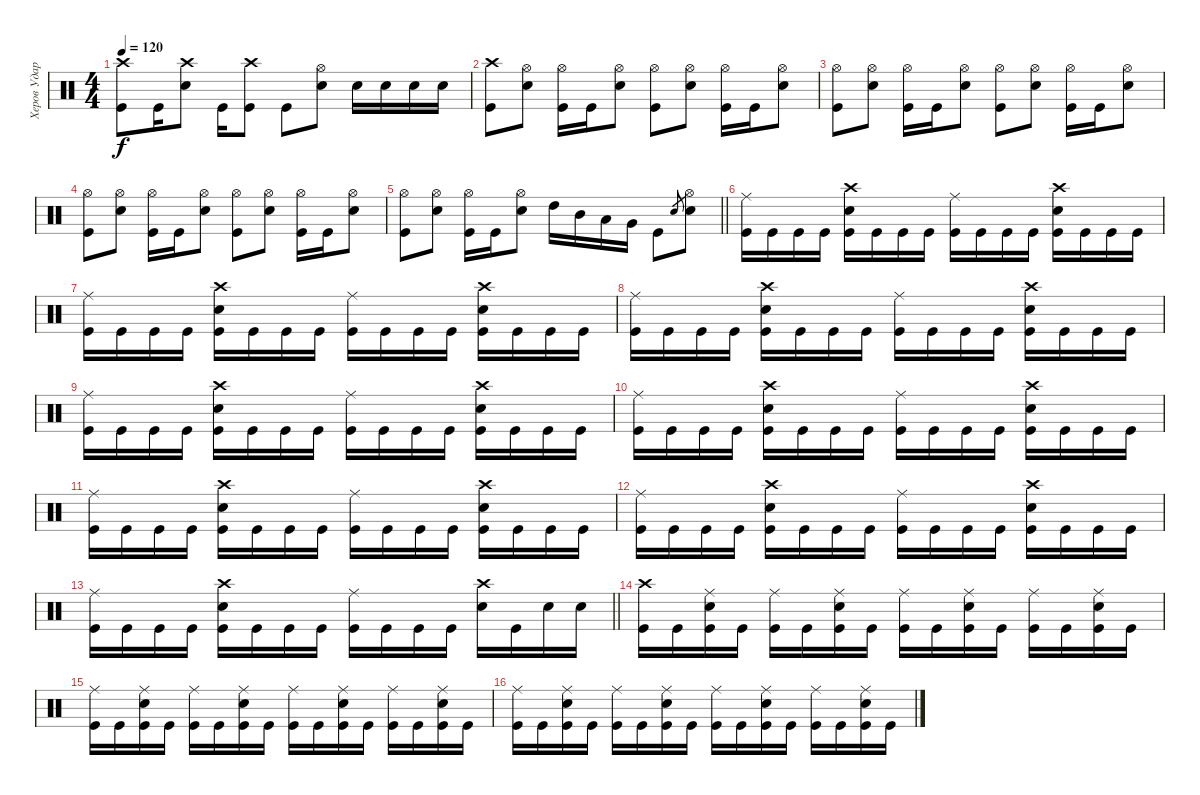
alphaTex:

\track ("Херов Ударник" "Херов Удар") {instrument percussion}
\staff {score}
\articulation defaults
\ts (4 4)
\tempo 120
\clef neutral
\ks c
("Crash high (hit)" "Kick (hit)").8{dy f} "Kick (hit)".16 ("Crash high (hit)" "Electric Snare (hit)").8 "Kick (hit)".16 ("Crash high (hit)" "Kick (hit)").8 "Kick (hit)".8 ("Hi-Hat (open)" "Electric Snare (hit)").8 "Electric Snare (hit)".16 "Electric Snare (hit)".16 "Electric Snare (hit)".16 "Electric Snare (hit)".16 |
("Crash high (hit)" "Kick (hit)").8 ("Hi-Hat (open)" "Electric Snare (hit)").8 ("Hi-Hat (open)" "Kick (hit)").16 "Kick (hit)".16 ("Hi-Hat (open)" "Electric Snare (hit)").8 ("Hi-Hat (open)" "Kick (hit)").8 ("Hi-Hat (open)" "Electric Snare (hit)").8 ("Hi-Hat (open)" "Kick (hit)").16 "Kick (hit)".16 ("Hi-Hat (open)" "Electric Snare (hit)").8 |
("Hi-Hat (open)" "Kick (hit)").8 ("Hi-Hat (open)" "Electric Snare (hit)").8 ("Hi-Hat (open)" "Kick (hit)").16 "Kick (hit)".16 ("Hi-Hat (open)" "Electric Snare (hit)").8 ("Hi-Hat (open)" "Kick (hit)").8 ("Hi-Hat (open)" "Electric Snare (hit)").8 ("Hi-Hat (open)" "Kick (hit)").16 "Kick (hit)".16 ("Hi-Hat (open)" "Electric Snare (hit)").8 |
("Hi-Hat (open)" "Kick (hit)").8 ("Hi-Hat (open)" "Electric Snare (hit)").8 ("Hi-Hat (open)" "Kick (hit)").16 "Kick (hit)".16 ("Hi-Hat (open)" "Electric Snare (hit)").8 ("Hi-Hat (open)" "Kick (hit)").8 ("Hi-Hat (open)" "Electric Snare (hit)").8 ("Hi-Hat (open)" "Kick (hit)").16 "Kick (hit)".16 ("Hi-Hat (open)" "Electric Snare (hit)").8 |
\barLineRight lightlight
("Hi-Hat (open)" "Kick (hit)").8 ("Hi-Hat (open)" "Electric Snare (hit)").8 ("Hi-Hat (open)" "Kick (hit)").16 "Kick (hit)".16 ("Hi-Hat (open)" "Electric Snare (hit)").8 "High Tom (hit)".16 "Mid Tom (hit)".16 "Low Tom (hit)".16 "Very Low Tom (hit)".16 "Kick (hit)".8 "Electric Snare (hit)".8{gr} ("Hi-Hat (open)" "Electric Snare (hit)").8 |
\section ("" "")
("Ride (middle)" "Kick (hit)").16 "Kick (hit)".16 "Kick (hit)".16 "Kick (hit)".16 ("Crash high (hit)" "Electric Snare (hit)" "Kick (hit)").16 "Kick (hit)".16 "Kick (hit)".16 "Kick (hit)".16 ("Ride (middle)" "Kick (hit)").16 "Kick (hit)".16 "Kick (hit)".16 "Kick (hit)".16 ("Crash high (hit)" "Electric Snare (hit)" "Kick (hit)").16 "Kick (hit)".16 "Kick (hit)".16 "Kick (hit)".16 |
("Ride (middle)" "Kick (hit)").16 "Kick (hit)".16 "Kick (hit)".16 "Kick (hit)".16 ("Crash high (hit)" "Electric Snare (hit)" "Kick (hit)").16 "Kick (hit)".16 "Kick (hit)".16 "Kick (hit)".16 ("Ride (middle)" "Kick (hit)").16 "Kick (hit)".16 "Kick (hit)".16 "Kick (hit)".16 ("Crash high (hit)" "Electric Snare (hit)" "Kick (hit)").16 "Kick (hit)".16 "Kick (hit)".16 "Kick (hit)".16 |
("Ride (middle)" "Kick (hit)").16 "Kick (hit)".16 "Kick (hit)".16 "Kick (hit)".16 ("Crash high (hit)" "Electric Snare (hit)" "Kick (hit)").16 "Kick (hit)".16 "Kick (hit)".16 "Kick (hit)".16 ("Ride (middle)" "Kick (hit)").16 "Kick (hit)".16 "Kick (hit)".16 "Kick (hit)".16 ("Crash high (hit)" "Electric Snare (hit)" "Kick (hit)").16 "Kick (hit)".16 "Kick (hit)".16 "Kick (hit)".16 |
("Ride (middle)" "Kick (hit)").16 "Kick (hit)".16 "Kick (hit)".16 "Kick (hit)".16 ("Crash high (hit)" "Electric Snare (hit)" "Kick (hit)").16 "Kick (hit)".16 "Kick (hit)".16 "Kick (hit)".16 ("Ride (middle)" "Kick (hit)").16 "Kick (hit)".16 "Kick (hit)".16 "Kick (hit)".16 ("Crash high (hit)" "Electric Snare (hit)" "Kick (hit)").16 "Kick (hit)".16 "Kick (hit)".16 "Kick (hit)".16 |
("Ride (middle)" "Kick (hit)").16 "Kick (hit)".16 "Kick (hit)".16 "Kick (hit)".16 ("Crash high (hit)" "Electric Snare (hit)" "Kick (hit)").16 "Kick (hit)".16 "Kick (hit)".16 "Kick (hit)".16 ("Ride (middle)" "Kick (hit)").16 "Kick (hit)".16 "Kick (hit)".16 "Kick (hit)".16 ("Crash high (hit)" "Electric Snare (hit)" "Kick (hit)").16 "Kick (hit)".16 "Kick (hit)".16 "Kick (hit)".16 |
("Ride (middle)" "Kick (hit)").16 "Kick (hit)".16 "Kick (hit)".16 "Kick (hit)".16 ("Crash high (hit)" "Electric Snare (hit)" "Kick (hit)").16 "Kick (hit)".16 "Kick (hit)".16 "Kick (hit)".16 ("Ride (middle)" "Kick (hit)").16 "Kick (hit)".16 "Kick (hit)".16 "Kick (hit)".16 ("Crash high (hit)" "Electric Snare (hit)" "Kick (hit)").16 "Kick (hit)".16 "Kick (hit)".16 "Kick (hit)".16 |
("Ride (middle)" "Kick (hit)").16 "Kick (hit)".16 "Kick (hit)".16 "Kick (hit)".16 ("Crash high (hit)" "Electric Snare (hit)" "Kick (hit)").16 "Kick (hit)".16 "Kick (hit)".16 "Kick (hit)".16 ("Ride (middle)" "Kick (hit)").16 "Kick (hit)".16 "Kick (hit)".16 "Kick (hit)".16 ("Crash high (hit)" "Electric Snare (hit)" "Kick (hit)").16 "Kick (hit)".16 "Kick (hit)".16 "Kick (hit)".16 |
\barLineRight lightlight
("Ride (middle)" "Kick (hit)").16 "Kick (hit)".16 "Kick (hit)".16 "Kick (hit)".16 ("Crash high (hit)" "Electric Snare (hit)" "Kick (hit)").16 "Kick (hit)".16 "Kick (hit)".16 "Kick (hit)".16 ("Ride (middle)" "Kick (hit)").16 "Kick (hit)".16 "Kick (hit)".16 "Kick (hit)".16 ("Crash high (hit)" "Electric Snare (hit)").16 "Kick (hit)".16 "Electric Snare (hit)".16 "Electric Snare (hit)".16 |
("Crash high (hit)" "Kick (hit)").16 "Kick (hit)".16 ("Ride (middle)" "Electric Snare (hit)" "Kick (hit)").16 "Kick (hit)".16 ("Ride (middle)" "Kick (hit)").16 "Kick (hit)".16 ("Ride (middle)" "Electric Snare (hit)" "Kick (hit)").16 "Kick (hit)".16 ("Ride (middle)" "Kick (hit)").16 "Kick (hit)".16 ("Ride (middle)" "Electric Snare (hit)" "Kick (hit)").16 "Kick (hit)".16 ("Ride (middle)" "Kick (hit)").16 "Kick (hit)".16 ("Ride (middle)" "Electric Snare (hit)" "Kick (hit)").16 "Kick (hit)".16 |
("Ride (middle)" "Kick (hit)").16 "Kick (hit)".16 ("Ride (middle)" "Electric Snare (hit)" "Kick (hit)").16 "Kick (hit)".16 ("Ride (middle)" "Kick (hit)").16 "Kick (hit)".16 ("Ride (middle)" "Electric Snare (hit)" "Kick (hit)").16 "Kick (hit)".16 ("Ride (middle)" "Kick (hit)").16 "Kick (hit)".16 ("Ride (middle)" "Electric Snare (hit)" "Kick (hit)").16 "Kick (hit)".16 ("Ride (middle)" "Kick (hit)").16 "Kick (hit)".16 ("Ride (middle)" "Electric Snare (hit)" "Kick (hit)").16 "Kick (hit)".16 |
("Ride (middle)" "Kick (hit)").16 "Kick (hit)".16 ("Ride (middle)" "Electric Snare (hit)" "Kick (hit)").16 "Kick (hit)".16 ("Ride (middle)" "Kick (hit)").16 "Kick (hit)".16 ("Ride (middle)" "Electric Snare (hit)" "Kick (hit)").16 "Kick (hit)".16 ("Ride (middle)" "Kick (hit)").16 "Kick (hit)".16 ("Ride (middle)" "Electric Snare (hit)" "Kick (hit)").16 "Kick (hit)".16 ("Ride (middle)" "Kick (hit)").16 "Kick (hit)".16 ("Ride (middle)" "Electric Snare (hit)" "Kick (hit)").16 "Kick (hit)".16
